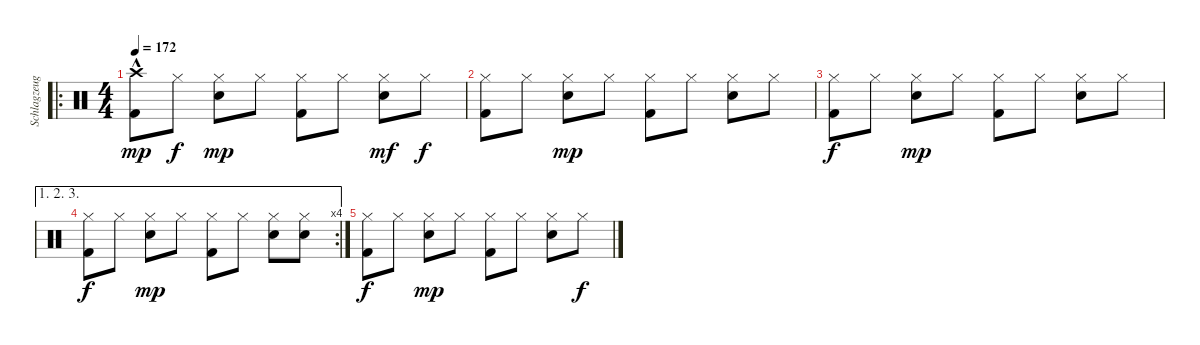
\track ("Schlagzeug" "Schlagzeug") {instrument percussion}
\staff {score}
\articulation defaults
\ro
\ts (4 4)
\tempo 172
\clef neutral
\ks c
("Crash high (hit)"{hac} "Kick (hit) 2").8{dy mp} "Hi-Hat (closed)".8{dy f} ("Hi-Hat (closed)" "Electric Snare (hit)").8{dy mp} "Hi-Hat (closed)".8 ("Hi-Hat (closed)" "Kick (hit) 2").8 "Hi-Hat (closed)".8 ("Hi-Hat (closed)" "Electric Snare (hit)").8{dy mf} "Hi-Hat (closed)".8{dy f} |
("Hi-Hat (closed)" "Kick (hit) 2").8 "Hi-Hat (closed)".8 ("Hi-Hat (closed)" "Electric Snare (hit)").8{dy mp} "Hi-Hat (closed)".8 ("Hi-Hat (closed)" "Kick (hit) 2").8 "Hi-Hat (closed)".8 ("Hi-Hat (closed)" "Electric Snare (hit)").8 "Hi-Hat (closed)".8 |
("Hi-Hat (closed)" "Kick (hit) 2").8{dy f} "Hi-Hat (closed)".8 ("Hi-Hat (closed)" "Electric Snare (hit)").8{dy mp} "Hi-Hat (closed)".8 ("Hi-Hat (closed)" "Kick (hit) 2").8 "Hi-Hat (closed)".8 ("Hi-Hat (closed)" "Electric Snare (hit)").8 "Hi-Hat (closed)".8 |
\ae (1 2 3)
\rc 4
("Hi-Hat (closed)" "Kick (hit) 2").8{dy f} "Hi-Hat (closed)".8 ("Hi-Hat (closed)" "Electric Snare (hit)").8{dy mp} "Hi-Hat (closed)".8 ("Hi-Hat (closed)" "Kick (hit) 2").8 "Hi-Hat (closed)".8 ("Hi-Hat (closed)" "Electric Snare (hit)").8 ("Hi-Hat (closed)" "Electric Snare (hit)").8 |
("Hi-Hat (closed)" "Kick (hit) 2").8{dy f} "Hi-Hat (closed)".8 ("Hi-Hat (closed)" "Electric Snare (hit)").8{dy mp} "Hi-Hat (closed)".8 ("Hi-Hat (closed)" "Kick (hit) 2").8 "Hi-Hat (closed)".8 ("Hi-Hat (closed)" "Electric Snare (hit)").8 "Hi-Hat (closed)".8{dy f}
